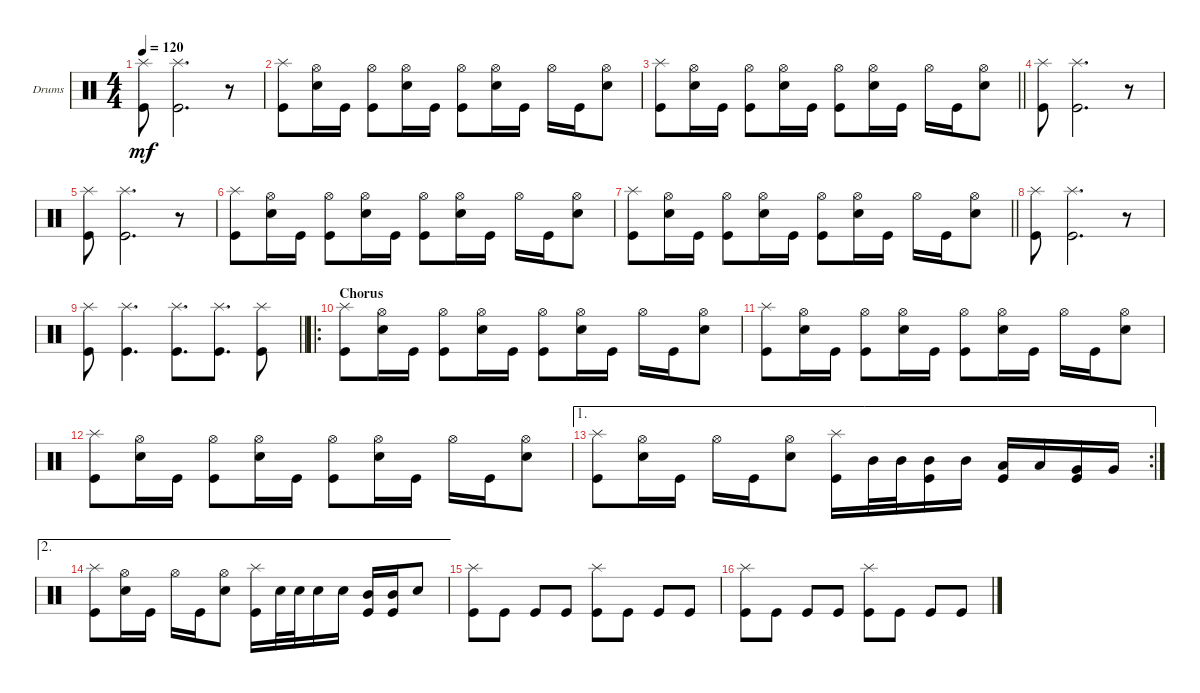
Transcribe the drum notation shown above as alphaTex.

\defaultSystemsLayout 4
\bracketExtendMode groupsimilarinstruments
\firstSystemTrackNameOrientation horizontal
\otherSystemsTrackNameOrientation horizontal
\track ("Drumkit" "Drums") {instrument percussion}
\staff {score}
\articulation defaults
\ts (4 4)
\tempo 120
\clef neutral
\ks c
("Kick (hit)" "Splash (hit)").8{dy mf} ("Kick (hit)" "Splash (hit)").2{d} r.8 |
("Kick (hit)" "Splash (hit)").8 ("Snare (hit) 2" "Hi-Hat (open)").16 "Kick (hit)".16 ("Kick (hit)" "Hi-Hat (open)").8 ("Snare (hit) 2" "Hi-Hat (open)").16 "Kick (hit)".16 ("Kick (hit)" "Hi-Hat (open)").8 ("Snare (hit) 2" "Hi-Hat (open)").16 "Kick (hit)".16 "Hi-Hat (open)".16 "Kick (hit)".16 ("Snare (hit) 2" "Hi-Hat (open)").8 |
\barLineRight lightlight
("Kick (hit)" "Splash (hit)").8 ("Snare (hit) 2" "Hi-Hat (open)").16 "Kick (hit)".16 ("Kick (hit)" "Hi-Hat (open)").8 ("Snare (hit) 2" "Hi-Hat (open)").16 "Kick (hit)".16 ("Kick (hit)" "Hi-Hat (open)").8 ("Snare (hit) 2" "Hi-Hat (open)").16 "Kick (hit)".16 "Hi-Hat (open)".16 "Kick (hit)".16 ("Snare (hit) 2" "Hi-Hat (open)").8 |
("Kick (hit)" "Splash (hit)").8 ("Kick (hit)" "Splash (hit)").2{d} r.8 |
("Kick (hit)" "Splash (hit)").8 ("Kick (hit)" "Splash (hit)").2{d} r.8 |
("Kick (hit)" "Splash (hit)").8 ("Snare (hit) 2" "Hi-Hat (open)").16 "Kick (hit)".16 ("Kick (hit)" "Hi-Hat (open)").8 ("Snare (hit) 2" "Hi-Hat (open)").16 "Kick (hit)".16 ("Kick (hit)" "Hi-Hat (open)").8 ("Snare (hit) 2" "Hi-Hat (open)").16 "Kick (hit)".16 "Hi-Hat (open)".16 "Kick (hit)".16 ("Snare (hit) 2" "Hi-Hat (open)").8 |
\barLineRight lightlight
("Kick (hit)" "Splash (hit)").8 ("Snare (hit) 2" "Hi-Hat (open)").16 "Kick (hit)".16 ("Kick (hit)" "Hi-Hat (open)").8 ("Snare (hit) 2" "Hi-Hat (open)").16 "Kick (hit)".16 ("Kick (hit)" "Hi-Hat (open)").8 ("Snare (hit) 2" "Hi-Hat (open)").16 "Kick (hit)".16 "Hi-Hat (open)".16 "Kick (hit)".16 ("Snare (hit) 2" "Hi-Hat (open)").8 |
("Kick (hit)" "Splash (hit)").8 ("Kick (hit)" "Splash (hit)").2{d} r.8 |
\barLineRight lightlight
("Kick (hit)" "Splash (hit)").8 ("Kick (hit)" "Splash (hit)").4{d} ("Kick (hit)" "Splash (hit)").8{d} ("Kick (hit)" "Splash (hit)").8{d} ("Kick (hit)" "Splash (hit)").8 |
\ro
\section ("" "Chorus")
("Kick (hit)" "Splash (hit)").8 ("Snare (hit) 2" "Hi-Hat (open)").16 "Kick (hit)".16 ("Kick (hit)" "Hi-Hat (open)").8 ("Snare (hit) 2" "Hi-Hat (open)").16 "Kick (hit)".16 ("Kick (hit)" "Hi-Hat (open)").8 ("Snare (hit) 2" "Hi-Hat (open)").16 "Kick (hit)".16 "Hi-Hat (open)".16 "Kick (hit)".16 ("Snare (hit) 2" "Hi-Hat (open)").8 |
("Kick (hit)" "Splash (hit)").8 ("Snare (hit) 2" "Hi-Hat (open)").16 "Kick (hit)".16 ("Kick (hit)" "Hi-Hat (open)").8 ("Snare (hit) 2" "Hi-Hat (open)").16 "Kick (hit)".16 ("Kick (hit)" "Hi-Hat (open)").8 ("Snare (hit) 2" "Hi-Hat (open)").16 "Kick (hit)".16 "Hi-Hat (open)".16 "Kick (hit)".16 ("Snare (hit) 2" "Hi-Hat (open)").8 |
("Kick (hit)" "Splash (hit)").8 ("Snare (hit) 2" "Hi-Hat (open)").16 "Kick (hit)".16 ("Kick (hit)" "Hi-Hat (open)").8 ("Snare (hit) 2" "Hi-Hat (open)").16 "Kick (hit)".16 ("Kick (hit)" "Hi-Hat (open)").8 ("Snare (hit) 2" "Hi-Hat (open)").16 "Kick (hit)".16 "Hi-Hat (open)".16 "Kick (hit)".16 ("Snare (hit) 2" "Hi-Hat (open)").8 |
\ae 1
\rc 2
("Kick (hit)" "Splash (hit)").8 ("Snare (hit) 2" "Hi-Hat (open)").16 "Kick (hit)".16 "Hi-Hat (open)".16 "Kick (hit)".16 ("Snare (hit) 2" "Hi-Hat (open)").8 ("Kick (hit)" "Splash (hit)").16 "Mid Tom (hit)".32 "Mid Tom (hit)".32 ("Mid Tom (hit)" "Kick (hit)").16 "Mid Tom (hit)".16 ("Low Tom (hit)" "Kick (hit)").16 "Low Tom (hit)".16 ("Very Low Tom (hit)" "Kick (hit)").16 "Very Low Tom (hit)".16 |
\ae 2
("Kick (hit)" "Splash (hit)").8 ("Snare (hit) 2" "Hi-Hat (open)").16 "Kick (hit)".16 "Hi-Hat (open)".16 "Kick (hit)".16 ("Snare (hit) 2" "Hi-Hat (open)").8 ("Kick (hit)" "Splash (hit)").16 "Snare (hit) 2".32 "Snare (hit) 2".32 "Snare (hit) 2".16 "Snare (hit) 2".16 ("Kick (hit)" "Mid Tom (hit)").16 ("Kick (hit)" "Mid Tom (hit)").16 "Snare (hit) 2".8 |
("Kick (hit)" "Splash (hit)").8 "Kick (hit)".8 "Kick (hit)".8 "Kick (hit)".8 ("Kick (hit)" "Splash (hit)").8 "Kick (hit)".8 "Kick (hit)".8 "Kick (hit)".8 |
("Kick (hit)" "Splash (hit)").8 "Kick (hit)".8 "Kick (hit)".8 "Kick (hit)".8 ("Kick (hit)" "Splash (hit)").8 "Kick (hit)".8 "Kick (hit)".8 "Kick (hit)".8
